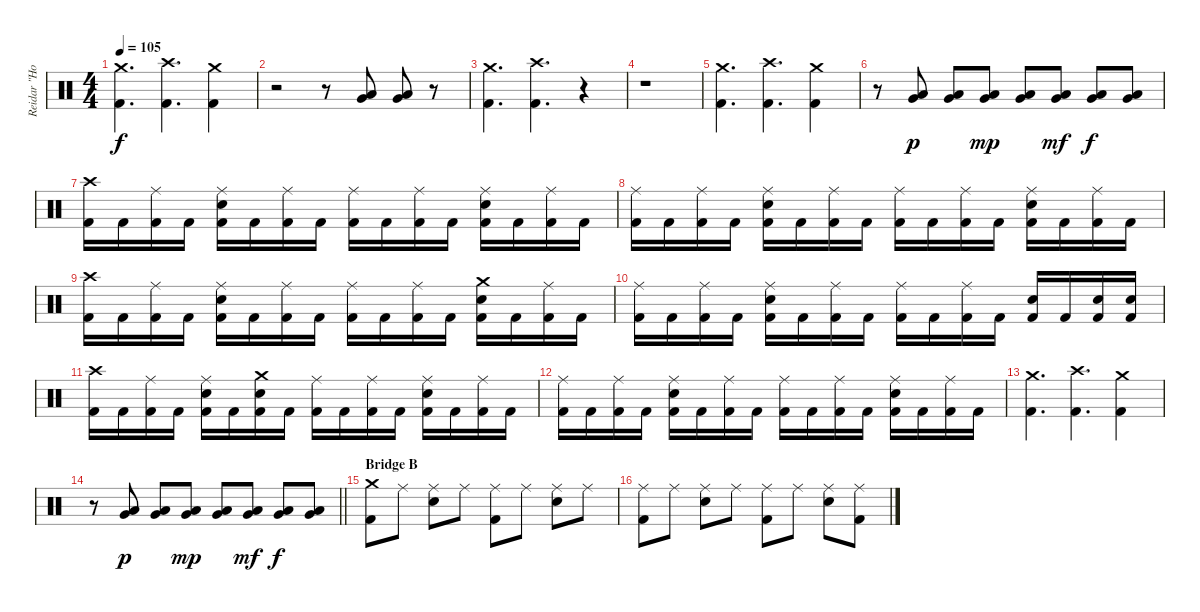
\track ("Reidar \"Horgh\" Horghagen " "Reidar \"Ho") {instrument percussion}
\staff {score}
\articulation defaults
\ts (4 4)
\tempo 105
\clef neutral
\ks c
("Crash medium (hit)" "Kick (hit) 2").4{d dy f} ("Crash high (hit)" "Kick (hit) 2").4{d} ("Crash medium (hit)" "Kick (hit) 2").4 |
r.2 r.8 ("Low Tom (hit)" "Very Low Tom (hit)").8 ("Very Low Tom (hit)" "Low Floor Tom (hit)").8 r.8 |
("Crash medium (hit)" "Kick (hit) 2").4{d} ("Crash high (hit)" "Kick (hit) 2").4{d} r.4 |
r.1 |
("Crash medium (hit)" "Kick (hit) 2").4{d} ("Crash high (hit)" "Kick (hit) 2").4{d} ("Crash medium (hit)" "Kick (hit) 2").4 |
r.8 ("Very Low Tom (hit)" "Low Floor Tom (hit)").8{dy p} ("Very Low Tom (hit)" "Low Floor Tom (hit)").8 ("Very Low Tom (hit)" "Low Floor Tom (hit)").8{dy mp} ("Very Low Tom (hit)" "Low Floor Tom (hit)").8 ("Very Low Tom (hit)" "Low Floor Tom (hit)").8{dy mf} ("Very Low Tom (hit)" "Low Floor Tom (hit)").8{dy f} ("Very Low Tom (hit)" "Low Floor Tom (hit)").8 |
("Crash high (hit)" "Kick (hit) 2").16 "Kick (hit) 2".16 ("Ride (middle)" "Kick (hit) 2").16 "Kick (hit) 2".16 ("Ride (middle)" "Snare (hit) 2" "Kick (hit) 2").16 "Kick (hit) 2".16 ("Ride (middle)" "Kick (hit) 2").16 "Kick (hit) 2".16 ("Ride (middle)" "Kick (hit) 2").16 "Kick (hit) 2".16 ("Ride (middle)" "Kick (hit) 2").16 "Kick (hit) 2".16 ("Ride (middle)" "Snare (hit) 2" "Kick (hit) 2").16 "Kick (hit) 2".16 ("Ride (middle)" "Kick (hit) 2").16 "Kick (hit) 2".16 |
("Ride (middle)" "Kick (hit) 2").16 "Kick (hit) 2".16 ("Ride (middle)" "Kick (hit) 2").16 "Kick (hit) 2".16 ("Ride (middle)" "Snare (hit) 2" "Kick (hit) 2").16 "Kick (hit) 2".16 ("Ride (middle)" "Kick (hit) 2").16 "Kick (hit) 2".16 ("Ride (middle)" "Kick (hit) 2").16 "Kick (hit) 2".16 ("Ride (middle)" "Kick (hit) 2").16 "Kick (hit) 2".16 ("Ride (middle)" "Snare (hit) 2" "Kick (hit) 2").16 "Kick (hit) 2".16 ("Ride (middle)" "Kick (hit) 2").16 "Kick (hit) 2".16 |
("Crash high (hit)" "Kick (hit) 2").16 "Kick (hit) 2".16 ("Ride (middle)" "Kick (hit) 2").16 "Kick (hit) 2".16 ("Ride (middle)" "Snare (hit) 2" "Kick (hit) 2").16 "Kick (hit) 2".16 ("Ride (middle)" "Kick (hit) 2").16 "Kick (hit) 2".16 ("Ride (middle)" "Kick (hit) 2").16 "Kick (hit) 2".16 ("Ride (middle)" "Kick (hit) 2").16 "Kick (hit) 2".16 ("Crash medium (hit)" "Snare (hit) 2" "Kick (hit) 2").16 "Kick (hit) 2".16 ("Ride (middle)" "Kick (hit) 2").16 "Kick (hit) 2".16 |
("Ride (middle)" "Kick (hit) 2").16 "Kick (hit) 2".16 ("Ride (middle)" "Kick (hit) 2").16 "Kick (hit) 2".16 ("Ride (middle)" "Snare (hit) 2" "Kick (hit) 2").16 "Kick (hit) 2".16 ("Ride (middle)" "Kick (hit) 2").16 "Kick (hit) 2".16 ("Ride (middle)" "Kick (hit) 2").16 "Kick (hit) 2".16 ("Ride (middle)" "Kick (hit) 2").16 "Kick (hit) 2".16 ("Snare (hit) 2" "Kick (hit) 2").16 "Kick (hit) 2".16 ("Snare (hit) 2" "Kick (hit) 2").16 ("Snare (hit) 2" "Kick (hit) 2").16 |
("Crash high (hit)" "Kick (hit) 2").16 "Kick (hit) 2".16 ("Ride (middle)" "Kick (hit) 2").16 "Kick (hit) 2".16 ("Ride (middle)" "Snare (hit) 2" "Kick (hit) 2").16 "Kick (hit) 2".16 ("Crash medium (hit)" "Snare (hit) 2" "Kick (hit) 2").16 "Kick (hit) 2".16 ("Ride (middle)" "Kick (hit) 2").16 "Kick (hit) 2".16 ("Ride (middle)" "Kick (hit) 2").16 "Kick (hit) 2".16 ("Ride (middle)" "Snare (hit) 2" "Kick (hit) 2").16 "Kick (hit) 2".16 ("Ride (middle)" "Kick (hit) 2").16 "Kick (hit) 2".16 |
("Ride (middle)" "Kick (hit) 2").16 "Kick (hit) 2".16 ("Ride (middle)" "Kick (hit) 2").16 "Kick (hit) 2".16 ("Ride (middle)" "Snare (hit) 2" "Kick (hit) 2").16 "Kick (hit) 2".16 ("Ride (middle)" "Kick (hit) 2").16 "Kick (hit) 2".16 ("Ride (middle)" "Kick (hit) 2").16 "Kick (hit) 2".16 ("Ride (middle)" "Kick (hit) 2").16 "Kick (hit) 2".16 ("Ride (middle)" "Snare (hit) 2" "Kick (hit) 2").16 "Kick (hit) 2".16 ("Ride (middle)" "Kick (hit) 2").16 "Kick (hit) 2".16 |
("Crash medium (hit)" "Kick (hit) 2").4{d} ("Crash high (hit)" "Kick (hit) 2").4{d} ("Crash medium (hit)" "Kick (hit) 2").4 |
\barLineRight lightlight
r.8 ("Very Low Tom (hit)" "Low Floor Tom (hit)").8{dy p} ("Very Low Tom (hit)" "Low Floor Tom (hit)").8 ("Very Low Tom (hit)" "Low Floor Tom (hit)").8{dy mp} ("Very Low Tom (hit)" "Low Floor Tom (hit)").8 ("Very Low Tom (hit)" "Low Floor Tom (hit)").8{dy mf} ("Very Low Tom (hit)" "Low Floor Tom (hit)").8{dy f} ("Very Low Tom (hit)" "Low Floor Tom (hit)").8 |
\section ("" "Bridge B")
("Crash medium (hit)" "Kick (hit) 2").8 "Ride (middle)".8 ("Ride (middle)" "Snare (hit) 2").8 "Ride (middle)".8 ("Ride (middle)" "Kick (hit) 2").8 "Ride (middle)".8 ("Ride (middle)" "Snare (hit) 2").8 "Ride (middle)".8 |
("Ride (middle)" "Kick (hit) 2").8 "Ride (middle)".8 ("Ride (middle)" "Snare (hit) 2").8 "Ride (middle)".8 ("Ride (middle)" "Kick (hit) 2").8 "Ride (middle)".8 ("Ride (middle)" "Snare (hit) 2").8 ("Ride (middle)" "Kick (hit) 2").8
